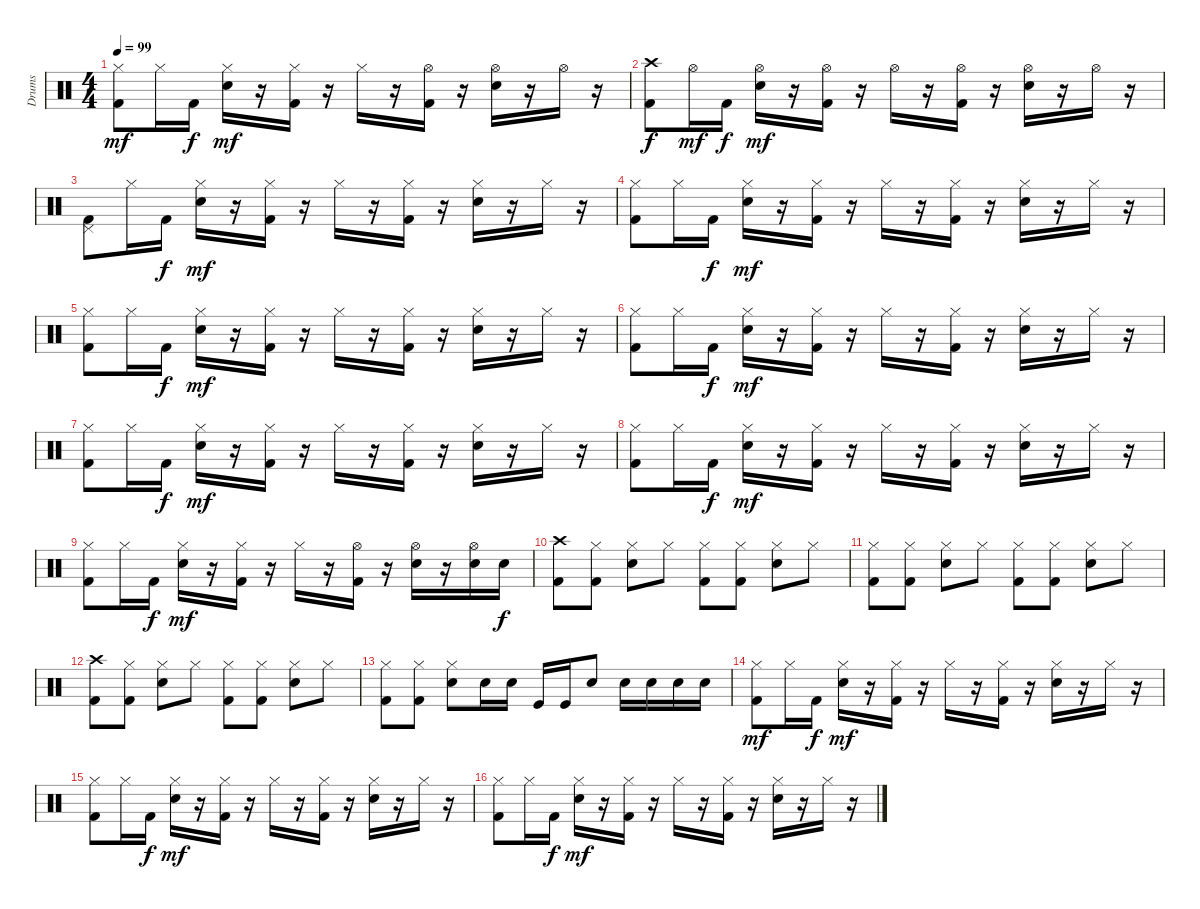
\track ("Drums" "Drums") {instrument percussion}
\staff {score}
\articulation defaults
\ts (4 4)
\tempo 99
\clef neutral
\ks c
("Hi-Hat (closed)" "Kick (hit) 2").8{dy mf} "Hi-Hat (closed)".16 "Kick (hit) 2".16{dy f} ("Hi-Hat (closed)" "Snare (hit) 2").16{dy mf} r.16 ("Hi-Hat (closed)" "Kick (hit) 2").16 r.16 "Hi-Hat (closed)".16 r.16 ("Hi-Hat (open)" "Kick (hit) 2").16 r.16 ("Hi-Hat (open)" "Snare (hit) 2").16 r.16 "Hi-Hat (open)".16 r.16 |
("Crash high (hit)" "Kick (hit) 2").8{dy f} "Hi-Hat (open)".16{dy mf} "Kick (hit) 2".16{dy f} ("Hi-Hat (open)" "Snare (hit) 2").16{dy mf} r.16 ("Hi-Hat (open)" "Kick (hit) 2").16 r.16 "Hi-Hat (open)".16 r.16 ("Hi-Hat (open)" "Kick (hit) 2").16 r.16 ("Hi-Hat (open)" "Snare (hit) 2").16 r.16 "Hi-Hat (open)".16 r.16 |
("Pedal Hi-Hat (hit)" "Kick (hit) 2").8 "Hi-Hat (closed)".16 "Kick (hit) 2".16{dy f} ("Hi-Hat (closed)" "Snare (hit) 2").16{dy mf} r.16 ("Hi-Hat (closed)" "Kick (hit) 2").16 r.16 "Hi-Hat (closed)".16 r.16 ("Hi-Hat (closed)" "Kick (hit) 2").16 r.16 ("Hi-Hat (closed)" "Snare (hit) 2").16 r.16 "Hi-Hat (closed)".16 r.16 |
("Hi-Hat (closed)" "Kick (hit) 2").8 "Hi-Hat (closed)".16 "Kick (hit) 2".16{dy f} ("Hi-Hat (closed)" "Snare (hit) 2").16{dy mf} r.16 ("Hi-Hat (closed)" "Kick (hit) 2").16 r.16 "Hi-Hat (closed)".16 r.16 ("Hi-Hat (closed)" "Kick (hit) 2").16 r.16 ("Hi-Hat (closed)" "Snare (hit) 2").16 r.16 "Hi-Hat (closed)".16 r.16 |
("Hi-Hat (closed)" "Kick (hit) 2").8 "Hi-Hat (closed)".16 "Kick (hit) 2".16{dy f} ("Hi-Hat (closed)" "Snare (hit) 2").16{dy mf} r.16 ("Hi-Hat (closed)" "Kick (hit) 2").16 r.16 "Hi-Hat (closed)".16 r.16 ("Hi-Hat (closed)" "Kick (hit) 2").16 r.16 ("Hi-Hat (closed)" "Snare (hit) 2").16 r.16 "Hi-Hat (closed)".16 r.16 |
("Hi-Hat (closed)" "Kick (hit) 2").8 "Hi-Hat (closed)".16 "Kick (hit) 2".16{dy f} ("Hi-Hat (closed)" "Snare (hit) 2").16{dy mf} r.16 ("Hi-Hat (closed)" "Kick (hit) 2").16 r.16 "Hi-Hat (closed)".16 r.16 ("Hi-Hat (closed)" "Kick (hit) 2").16 r.16 ("Hi-Hat (closed)" "Snare (hit) 2").16 r.16 "Hi-Hat (closed)".16 r.16 |
("Hi-Hat (closed)" "Kick (hit) 2").8 "Hi-Hat (closed)".16 "Kick (hit) 2".16{dy f} ("Hi-Hat (closed)" "Snare (hit) 2").16{dy mf} r.16 ("Hi-Hat (closed)" "Kick (hit) 2").16 r.16 "Hi-Hat (closed)".16 r.16 ("Hi-Hat (closed)" "Kick (hit) 2").16 r.16 ("Hi-Hat (closed)" "Snare (hit) 2").16 r.16 "Hi-Hat (closed)".16 r.16 |
("Hi-Hat (closed)" "Kick (hit) 2").8 "Hi-Hat (closed)".16 "Kick (hit) 2".16{dy f} ("Hi-Hat (closed)" "Snare (hit) 2").16{dy mf} r.16 ("Hi-Hat (closed)" "Kick (hit) 2").16 r.16 "Hi-Hat (closed)".16 r.16 ("Hi-Hat (closed)" "Kick (hit) 2").16 r.16 ("Hi-Hat (closed)" "Snare (hit) 2").16 r.16 "Hi-Hat (closed)".16 r.16 |
("Hi-Hat (closed)" "Kick (hit) 2").8 "Hi-Hat (closed)".16 "Kick (hit) 2".16{dy f} ("Hi-Hat (closed)" "Snare (hit) 2").16{dy mf} r.16 ("Hi-Hat (closed)" "Kick (hit) 2").16 r.16 "Hi-Hat (closed)".16 r.16 ("Hi-Hat (open)" "Kick (hit) 2").16 r.16 ("Hi-Hat (open)" "Snare (hit) 2").16 r.16 ("Hi-Hat (open)" "Snare (hit) 2").16 "Snare (hit) 2".16{dy f} |
("Crash high (hit)" "Kick (hit) 2").8 ("Hi-Hat (closed)" "Kick (hit) 2").8 ("Hi-Hat (closed)" "Snare (hit) 2").8 "Hi-Hat (closed)".8 ("Hi-Hat (closed)" "Kick (hit) 2").8 ("Hi-Hat (closed)" "Kick (hit) 2").8 ("Hi-Hat (closed)" "Snare (hit) 2").8 "Hi-Hat (closed)".8 |
("Hi-Hat (closed)" "Kick (hit) 2").8 ("Hi-Hat (closed)" "Kick (hit) 2").8 ("Hi-Hat (closed)" "Snare (hit) 2").8 "Hi-Hat (closed)".8 ("Hi-Hat (closed)" "Kick (hit) 2").8 ("Hi-Hat (closed)" "Kick (hit) 2").8 ("Hi-Hat (closed)" "Snare (hit) 2").8 "Hi-Hat (closed)".8 |
("Crash high (hit)" "Kick (hit) 2").8 ("Hi-Hat (closed)" "Kick (hit) 2").8 ("Hi-Hat (closed)" "Snare (hit) 2").8 "Hi-Hat (closed)".8 ("Hi-Hat (closed)" "Kick (hit) 2").8 ("Hi-Hat (closed)" "Kick (hit) 2").8 ("Hi-Hat (closed)" "Snare (hit) 2").8 "Hi-Hat (closed)".8 |
("Hi-Hat (closed)" "Kick (hit) 2").8 ("Hi-Hat (closed)" "Kick (hit) 2").8 ("Hi-Hat (closed)" "Snare (hit) 2").8 "Snare (hit) 2".16 "Snare (hit) 2".16 "Kick (hit)".16 "Kick (hit)".16 "Snare (hit) 2".8 "Snare (hit) 2".16 "Snare (hit) 2".16 "Snare (hit) 2".16 "Snare (hit) 2".16 |
("Hi-Hat (closed)" "Kick (hit) 2").8{dy mf} "Hi-Hat (closed)".16 "Kick (hit) 2".16{dy f} ("Hi-Hat (closed)" "Snare (hit) 2").16{dy mf} r.16 ("Hi-Hat (closed)" "Kick (hit) 2").16 r.16 "Hi-Hat (closed)".16 r.16 ("Hi-Hat (closed)" "Kick (hit) 2").16 r.16 ("Hi-Hat (closed)" "Snare (hit) 2").16 r.16 "Hi-Hat (closed)".16 r.16 |
("Hi-Hat (closed)" "Kick (hit) 2").8 "Hi-Hat (closed)".16 "Kick (hit) 2".16{dy f} ("Hi-Hat (closed)" "Snare (hit) 2").16{dy mf} r.16 ("Hi-Hat (closed)" "Kick (hit) 2").16 r.16 "Hi-Hat (closed)".16 r.16 ("Hi-Hat (closed)" "Kick (hit) 2").16 r.16 ("Hi-Hat (closed)" "Snare (hit) 2").16 r.16 "Hi-Hat (closed)".16 r.16 |
("Hi-Hat (closed)" "Kick (hit) 2").8 "Hi-Hat (closed)".16 "Kick (hit) 2".16{dy f} ("Hi-Hat (closed)" "Snare (hit) 2").16{dy mf} r.16 ("Hi-Hat (closed)" "Kick (hit) 2").16 r.16 "Hi-Hat (closed)".16 r.16 ("Hi-Hat (closed)" "Kick (hit) 2").16 r.16 ("Hi-Hat (closed)" "Snare (hit) 2").16 r.16 "Hi-Hat (closed)".16 r.16
